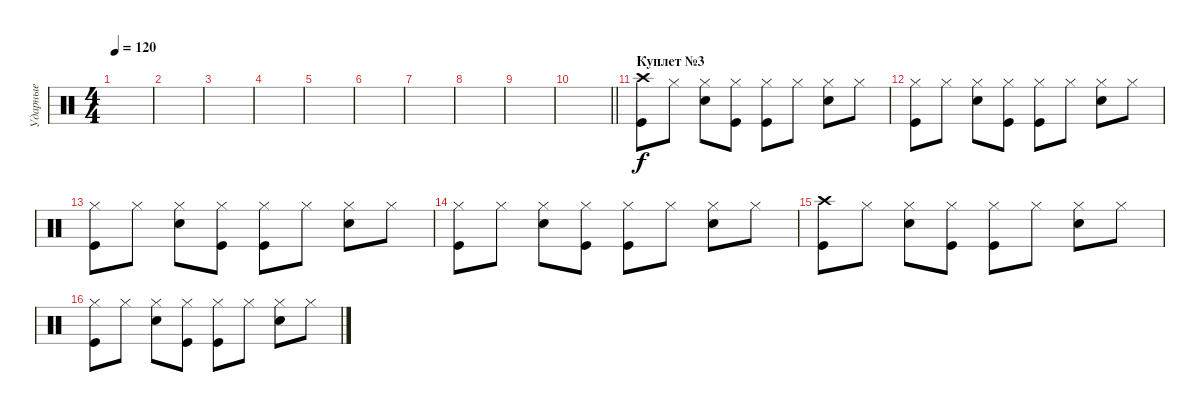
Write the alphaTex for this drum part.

\track ("Ударные" "Ударные") {instrument percussion}
\staff {score}
\articulation defaults
\ts (4 4)
\tempo 120
\clef neutral
\ks c
|
|
|
|
|
|
|
|
|
\barLineRight lightlight
|
\section ("" "Куплет №3")
("Crash high (hit)" "Kick (hit)").8 "Hi-Hat (closed)".8 ("Hi-Hat (closed)" "Snare (hit) 2").8 ("Hi-Hat (closed)" "Kick (hit)").8 ("Hi-Hat (closed)" "Kick (hit)").8 "Hi-Hat (closed)".8 ("Hi-Hat (closed)" "Snare (hit) 2").8 "Hi-Hat (closed)".8 |
("Hi-Hat (closed)" "Kick (hit)").8 "Hi-Hat (closed)".8 ("Hi-Hat (closed)" "Snare (hit) 2").8 ("Hi-Hat (closed)" "Kick (hit)").8 ("Hi-Hat (closed)" "Kick (hit)").8 "Hi-Hat (closed)".8 ("Hi-Hat (closed)" "Snare (hit) 2").8 "Hi-Hat (closed)".8 |
("Hi-Hat (closed)" "Kick (hit)").8 "Hi-Hat (closed)".8 ("Hi-Hat (closed)" "Snare (hit) 2").8 ("Hi-Hat (closed)" "Kick (hit)").8 ("Hi-Hat (closed)" "Kick (hit)").8 "Hi-Hat (closed)".8 ("Hi-Hat (closed)" "Snare (hit) 2").8 "Hi-Hat (closed)".8 |
("Hi-Hat (closed)" "Kick (hit)").8 "Hi-Hat (closed)".8 ("Hi-Hat (closed)" "Snare (hit) 2").8 ("Hi-Hat (closed)" "Kick (hit)").8 ("Hi-Hat (closed)" "Kick (hit)").8 "Hi-Hat (closed)".8 ("Hi-Hat (closed)" "Snare (hit) 2").8 "Hi-Hat (closed)".8 |
("Crash high (hit)" "Kick (hit)").8 "Hi-Hat (closed)".8 ("Hi-Hat (closed)" "Snare (hit) 2").8 ("Hi-Hat (closed)" "Kick (hit)").8 ("Hi-Hat (closed)" "Kick (hit)").8 "Hi-Hat (closed)".8 ("Hi-Hat (closed)" "Snare (hit) 2").8 "Hi-Hat (closed)".8 |
("Hi-Hat (closed)" "Kick (hit)").8 "Hi-Hat (closed)".8 ("Hi-Hat (closed)" "Snare (hit) 2").8 ("Hi-Hat (closed)" "Kick (hit)").8 ("Hi-Hat (closed)" "Kick (hit)").8 "Hi-Hat (closed)".8 ("Hi-Hat (closed)" "Snare (hit) 2").8 "Hi-Hat (closed)".8
